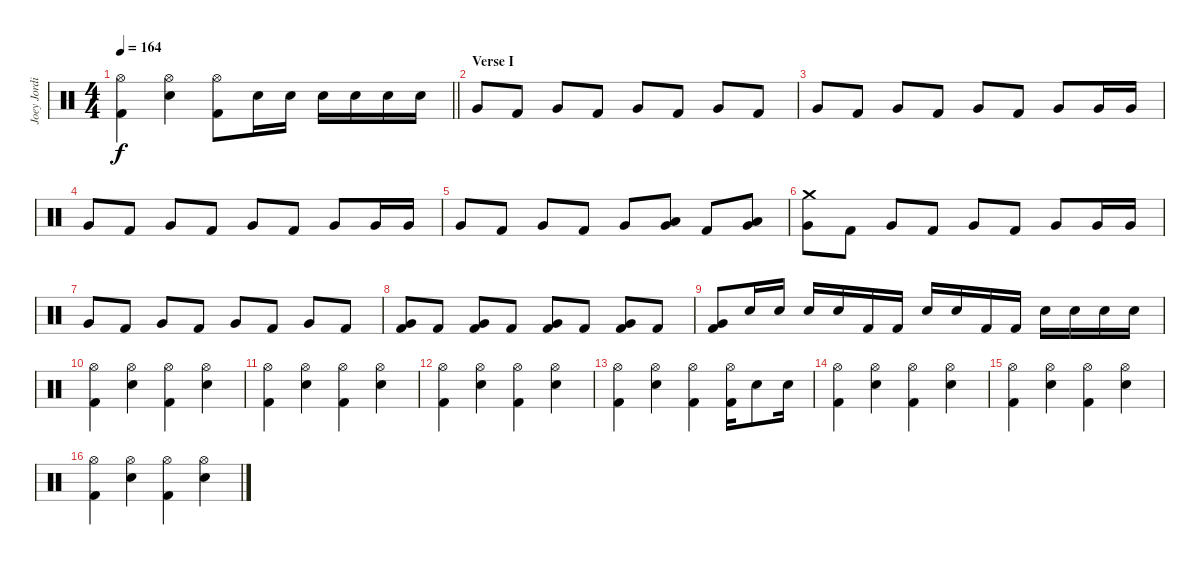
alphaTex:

\track ("Joey Jordison III" "Joey Jordi") {instrument percussion}
\staff {score}
\articulation defaults
\ts (4 4)
\tempo 164
\clef neutral
\barLineRight lightlight
\ks c
("Hi-Hat (open)" "Kick (hit) 2").4{dy f} ("Hi-Hat (open)" "Electric Snare (hit)").4 ("Hi-Hat (open)" "Kick (hit) 2").8 "Electric Snare (hit)".16 "Electric Snare (hit)".16 "Electric Snare (hit)".16 "Electric Snare (hit)".16 "Electric Snare (hit)".16 "Electric Snare (hit)".16 |
\section ("" "Verse I")
"Very Low Tom (hit)".8 "Kick (hit) 2".8 "Very Low Tom (hit)".8 "Kick (hit) 2".8 "Very Low Tom (hit)".8 "Kick (hit) 2".8 "Very Low Tom (hit)".8 "Kick (hit) 2".8 |
"Very Low Tom (hit)".8 "Kick (hit) 2".8 "Very Low Tom (hit)".8 "Kick (hit) 2".8 "Very Low Tom (hit)".8 "Kick (hit) 2".8 "Very Low Tom (hit)".8 "Very Low Tom (hit)".16 "Very Low Tom (hit)".16 |
"Very Low Tom (hit)".8 "Kick (hit) 2".8 "Very Low Tom (hit)".8 "Kick (hit) 2".8 "Very Low Tom (hit)".8 "Kick (hit) 2".8 "Very Low Tom (hit)".8 "Very Low Tom (hit)".16 "Very Low Tom (hit)".16 |
"Very Low Tom (hit)".8 "Kick (hit) 2".8 "Very Low Tom (hit)".8 "Kick (hit) 2".8 "Very Low Tom (hit)".8 ("Very Low Tom (hit)" "Low Floor Tom (hit)").8 "Kick (hit) 2".8 ("Very Low Tom (hit)" "Low Floor Tom (hit)").8 |
("Crash medium (hit)" "Very Low Tom (hit)").8 "Kick (hit) 2".8 "Very Low Tom (hit)".8 "Kick (hit) 2".8 "Very Low Tom (hit)".8 "Kick (hit) 2".8 "Very Low Tom (hit)".8 "Very Low Tom (hit)".16 "Very Low Tom (hit)".16 |
"Very Low Tom (hit)".8 "Kick (hit) 2".8 "Very Low Tom (hit)".8 "Kick (hit) 2".8 "Very Low Tom (hit)".8 "Kick (hit) 2".8 "Very Low Tom (hit)".8 "Kick (hit) 2".8 |
("Very Low Tom (hit)" "Kick (hit) 2").8 "Kick (hit) 2".8 ("Very Low Tom (hit)" "Kick (hit) 2").8 "Kick (hit) 2".8 ("Very Low Tom (hit)" "Kick (hit) 2").8 "Kick (hit) 2".8 ("Very Low Tom (hit)" "Kick (hit) 2").8 "Kick (hit) 2".8 |
("Very Low Tom (hit)" "Kick (hit) 2").8 "Electric Snare (hit)".16 "Electric Snare (hit)".16 "Electric Snare (hit)".16 "Electric Snare (hit)".16 "Kick (hit) 2".16 "Kick (hit) 2".16 "Electric Snare (hit)".16 "Electric Snare (hit)".16 "Kick (hit) 2".16 "Kick (hit) 2".16 "Electric Snare (hit)".16 "Electric Snare (hit)".16 "Electric Snare (hit)".16 "Electric Snare (hit)".16 |
("Hi-Hat (open)" "Kick (hit) 2").4 ("Hi-Hat (open)" "Electric Snare (hit)").4 ("Hi-Hat (open)" "Kick (hit) 2").4 ("Hi-Hat (open)" "Electric Snare (hit)").4 |
("Hi-Hat (open)" "Kick (hit) 2").4 ("Hi-Hat (open)" "Electric Snare (hit)").4 ("Hi-Hat (open)" "Kick (hit) 2").4 ("Hi-Hat (open)" "Electric Snare (hit)").4 |
("Hi-Hat (open)" "Kick (hit) 2").4 ("Hi-Hat (open)" "Electric Snare (hit)").4 ("Hi-Hat (open)" "Kick (hit) 2").4 ("Hi-Hat (open)" "Electric Snare (hit)").4 |
("Hi-Hat (open)" "Kick (hit) 2").4 ("Hi-Hat (open)" "Electric Snare (hit)").4 ("Hi-Hat (open)" "Kick (hit) 2").4 ("Hi-Hat (open)" "Kick (hit) 2").16 "Electric Snare (hit)".8 "Electric Snare (hit)".16 |
("Hi-Hat (open)" "Kick (hit) 2").4 ("Hi-Hat (open)" "Electric Snare (hit)").4 ("Hi-Hat (open)" "Kick (hit) 2").4 ("Hi-Hat (open)" "Electric Snare (hit)").4 |
("Hi-Hat (open)" "Kick (hit) 2").4 ("Hi-Hat (open)" "Electric Snare (hit)").4 ("Hi-Hat (open)" "Kick (hit) 2").4 ("Hi-Hat (open)" "Electric Snare (hit)").4 |
("Hi-Hat (open)" "Kick (hit) 2").4 ("Hi-Hat (open)" "Electric Snare (hit)").4 ("Hi-Hat (open)" "Kick (hit) 2").4 ("Hi-Hat (open)" "Electric Snare (hit)").4
